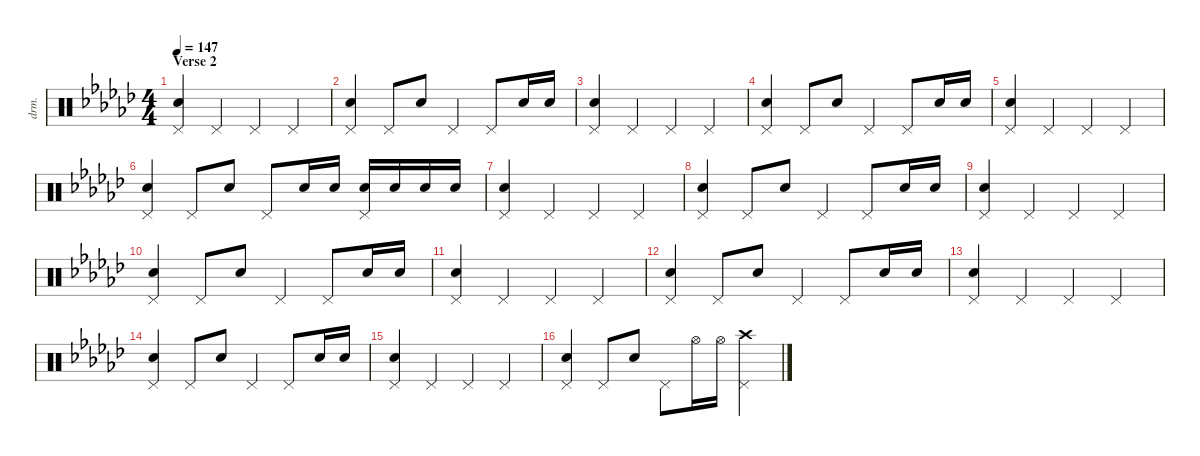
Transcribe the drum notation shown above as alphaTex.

\defaultSystemsLayout 8
\hideDynamics
\bracketExtendMode nobrackets
\otherSystemsTrackNameOrientation horizontal
\track ("Drums" "drm.") {defaultSystemsLayout 4 instrument percussion}
\staff {score}
\articulation defaults
\ts (4 4)
\section ("" "Verse 2")
\tempo 147
\clef neutral
\ks ebminor
("Pedal Hi-Hat (hit)"{acc forcenatural} "Snare (hit) 2"{acc forcenatural}).4{dy f beam Up} "Pedal Hi-Hat (hit)"{acc forcenatural}.4{beam Up} "Pedal Hi-Hat (hit)"{acc forcenatural}.4{beam Up} "Pedal Hi-Hat (hit)"{acc forcenatural}.4{beam Up} |
("Pedal Hi-Hat (hit)"{acc forcenatural} "Snare (hit) 2"{acc forcenatural}).4{beam Up} "Pedal Hi-Hat (hit)"{acc forcenatural}.8{beam Up} "Snare (hit) 2"{acc forcenatural}.8{beam Up} "Pedal Hi-Hat (hit)"{acc forcenatural}.4{beam Up} "Pedal Hi-Hat (hit)"{acc forcenatural}.8{beam Up} "Snare (hit) 2"{acc forcenatural}.16{beam Up} "Snare (hit) 2"{acc forcenatural}.16{dy ff beam Up} |
("Pedal Hi-Hat (hit)"{acc forcenatural} "Snare (hit) 2"{acc forcenatural}).4{dy f beam Up} "Pedal Hi-Hat (hit)"{acc forcenatural}.4{beam Up} "Pedal Hi-Hat (hit)"{acc forcenatural}.4{beam Up} "Pedal Hi-Hat (hit)"{acc forcenatural}.4{beam Up} |
("Pedal Hi-Hat (hit)"{acc forcenatural} "Snare (hit) 2"{acc forcenatural}).4{beam Up} "Pedal Hi-Hat (hit)"{acc forcenatural}.8{beam Up} "Snare (hit) 2"{acc forcenatural}.8{beam Up} "Pedal Hi-Hat (hit)"{acc forcenatural}.4{beam Up} "Pedal Hi-Hat (hit)"{acc forcenatural}.8{beam Up} "Snare (hit) 2"{acc forcenatural}.16{beam Up} "Snare (hit) 2"{acc forcenatural}.16{dy ff beam Up} |
("Pedal Hi-Hat (hit)"{acc forcenatural} "Snare (hit) 2"{acc forcenatural}).4{dy f beam Up} "Pedal Hi-Hat (hit)"{acc forcenatural}.4{beam Up} "Pedal Hi-Hat (hit)"{acc forcenatural}.4{beam Up} "Pedal Hi-Hat (hit)"{acc forcenatural}.4{beam Up} |
("Pedal Hi-Hat (hit)"{acc forcenatural} "Snare (hit) 2"{acc forcenatural}).4{beam Up} "Pedal Hi-Hat (hit)"{acc forcenatural}.8{beam Up} "Snare (hit) 2"{acc forcenatural}.8{beam Up} "Pedal Hi-Hat (hit)"{acc forcenatural}.8{beam Up} "Snare (hit) 2"{acc forcenatural}.16{dy p beam Up} "Snare (hit) 2"{acc forcenatural}.16{dy mp beam Up} ("Pedal Hi-Hat (hit)"{acc forcenatural} "Snare (hit) 2"{acc forcenatural}).16{dy f beam Up} "Snare (hit) 2"{acc forcenatural}.16{dy mf beam Up} "Snare (hit) 2"{acc forcenatural}.16{dy f beam Up} "Snare (hit) 2"{acc forcenatural}.16{dy ff beam Up} |
("Pedal Hi-Hat (hit)"{acc forcenatural} "Snare (hit) 2"{acc forcenatural}).4{dy f beam Up} "Pedal Hi-Hat (hit)"{acc forcenatural}.4{beam Up} "Pedal Hi-Hat (hit)"{acc forcenatural}.4{beam Up} "Pedal Hi-Hat (hit)"{acc forcenatural}.4{beam Up} |
("Pedal Hi-Hat (hit)"{acc forcenatural} "Snare (hit) 2"{acc forcenatural}).4{beam Up} "Pedal Hi-Hat (hit)"{acc forcenatural}.8{beam Up} "Snare (hit) 2"{acc forcenatural}.8{beam Up} "Pedal Hi-Hat (hit)"{acc forcenatural}.4{beam Up} "Pedal Hi-Hat (hit)"{acc forcenatural}.8{beam Up} "Snare (hit) 2"{acc forcenatural}.16{beam Up} "Snare (hit) 2"{acc forcenatural}.16{dy ff beam Up} |
("Pedal Hi-Hat (hit)"{acc forcenatural} "Snare (hit) 2"{acc forcenatural}).4{dy f beam Up} "Pedal Hi-Hat (hit)"{acc forcenatural}.4{beam Up} "Pedal Hi-Hat (hit)"{acc forcenatural}.4{beam Up} "Pedal Hi-Hat (hit)"{acc forcenatural}.4{beam Up} |
("Pedal Hi-Hat (hit)"{acc forcenatural} "Snare (hit) 2"{acc forcenatural}).4{beam Up} "Pedal Hi-Hat (hit)"{acc forcenatural}.8{beam Up} "Snare (hit) 2"{acc forcenatural}.8{beam Up} "Pedal Hi-Hat (hit)"{acc forcenatural}.4{beam Up} "Pedal Hi-Hat (hit)"{acc forcenatural}.8{beam Up} "Snare (hit) 2"{acc forcenatural}.16{beam Up} "Snare (hit) 2"{acc forcenatural}.16{dy ff beam Up} |
("Pedal Hi-Hat (hit)"{acc forcenatural} "Snare (hit) 2"{acc forcenatural}).4{dy f beam Up} "Pedal Hi-Hat (hit)"{acc forcenatural}.4{beam Up} "Pedal Hi-Hat (hit)"{acc forcenatural}.4{beam Up} "Pedal Hi-Hat (hit)"{acc forcenatural}.4{beam Up} |
("Pedal Hi-Hat (hit)"{acc forcenatural} "Snare (hit) 2"{acc forcenatural}).4{beam Up} "Pedal Hi-Hat (hit)"{acc forcenatural}.8{beam Up} "Snare (hit) 2"{acc forcenatural}.8{beam Up} "Pedal Hi-Hat (hit)"{acc forcenatural}.4{beam Up} "Pedal Hi-Hat (hit)"{acc forcenatural}.8{beam Up} "Snare (hit) 2"{acc forcenatural}.16{beam Up} "Snare (hit) 2"{acc forcenatural}.16{dy ff beam Up} |
("Pedal Hi-Hat (hit)"{acc forcenatural} "Snare (hit) 2"{acc forcenatural}).4{dy f beam Up} "Pedal Hi-Hat (hit)"{acc forcenatural}.4{beam Up} "Pedal Hi-Hat (hit)"{acc forcenatural}.4{beam Up} "Pedal Hi-Hat (hit)"{acc forcenatural}.4{beam Up} |
("Pedal Hi-Hat (hit)"{acc forcenatural} "Snare (hit) 2"{acc forcenatural}).4{beam Up} "Pedal Hi-Hat (hit)"{acc forcenatural}.8{beam Up} "Snare (hit) 2"{acc forcenatural}.8{beam Up} "Pedal Hi-Hat (hit)"{acc forcenatural}.4{beam Up} "Pedal Hi-Hat (hit)"{acc forcenatural}.8{beam Up} "Snare (hit) 2"{acc forcenatural}.16{beam Up} "Snare (hit) 2"{acc forcenatural}.16{dy ff beam Up} |
("Pedal Hi-Hat (hit)"{acc forcenatural} "Snare (hit) 2"{acc forcenatural}).4{dy f beam Up} "Pedal Hi-Hat (hit)"{acc forcenatural}.4{beam Up} "Pedal Hi-Hat (hit)"{acc forcenatural}.4{beam Up} "Pedal Hi-Hat (hit)"{acc forcenatural}.4{beam Up} |
("Pedal Hi-Hat (hit)"{acc forcenatural} "Snare (hit) 2"{acc forcenatural}).4{beam Up} "Pedal Hi-Hat (hit)"{acc forcenatural}.8{beam Up} "Snare (hit) 2"{acc forcenatural}.8{beam Up} "Pedal Hi-Hat (hit)"{acc forcenatural}.8{beam Down} "Hi-Hat (open)"{acc forcenatural}.16{beam Down} "Hi-Hat (open)"{acc forcenatural}.16{beam Down} ("Pedal Hi-Hat (hit)"{acc forcenatural} "Crash high (hit)"{acc forcenatural}).4{beam Down}
